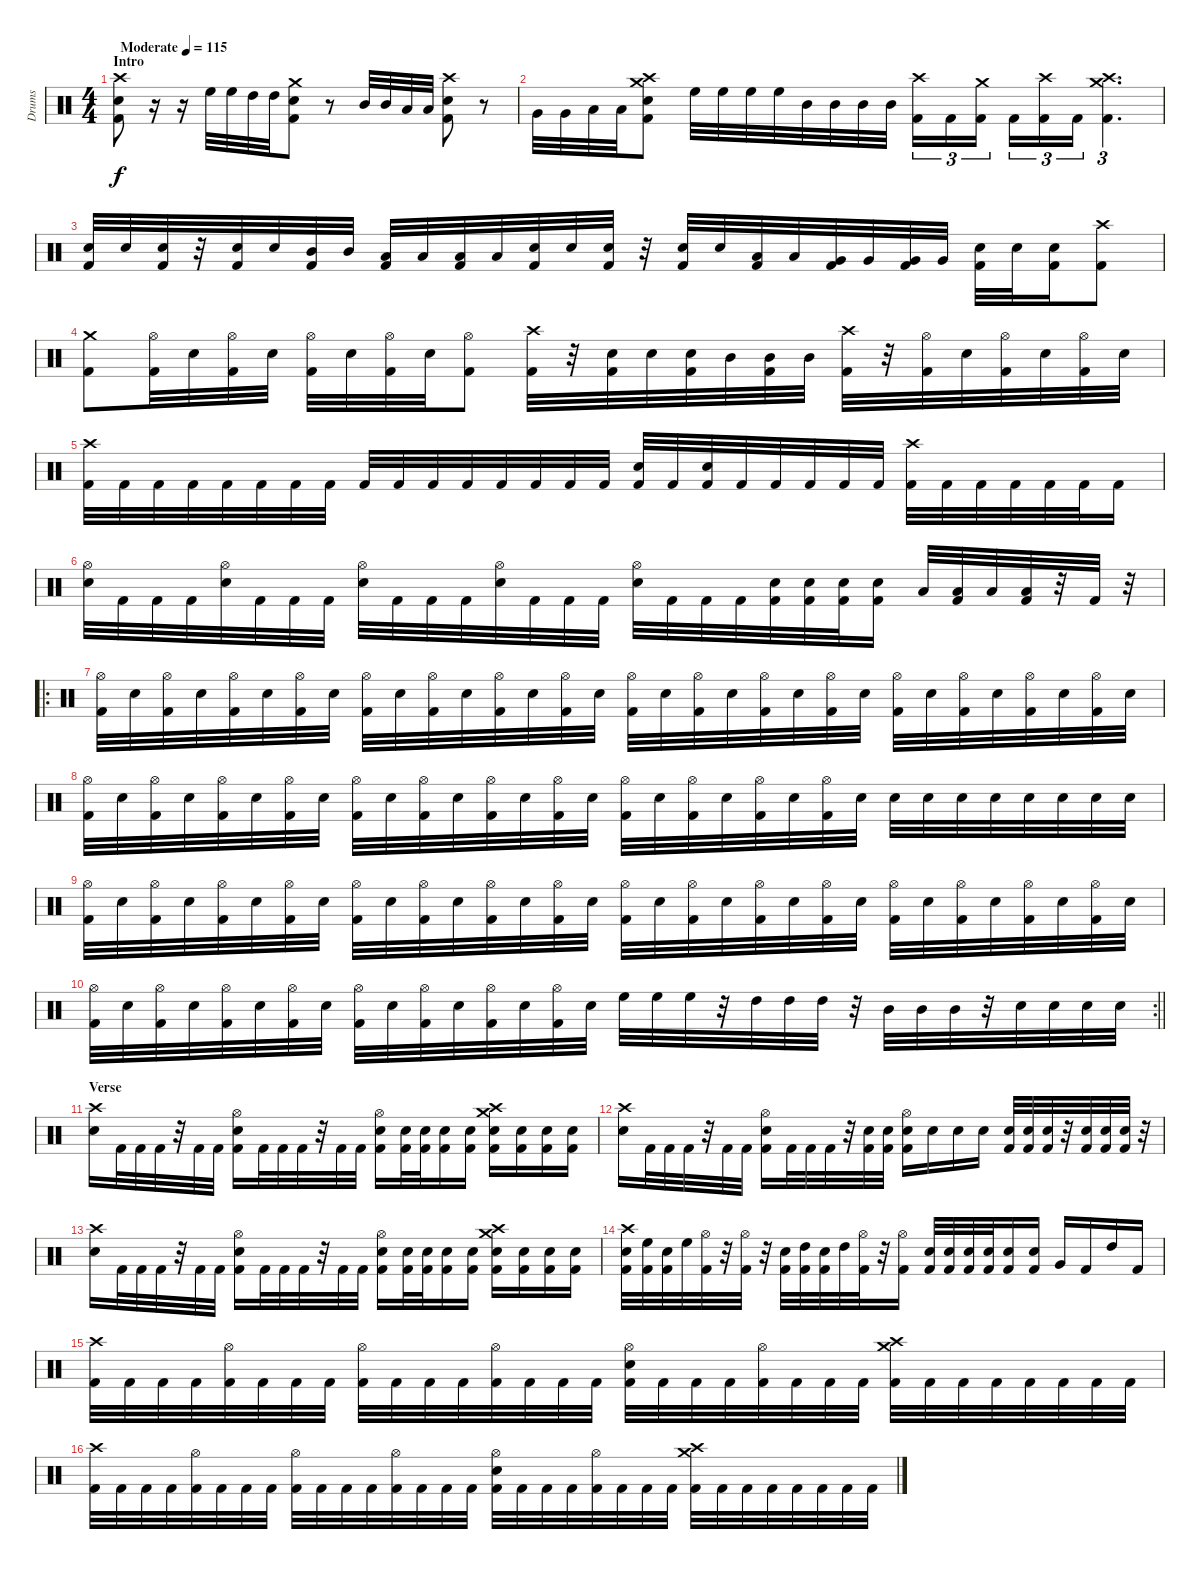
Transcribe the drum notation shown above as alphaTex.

\track ("Drums" "Drums") {instrument percussion}
\staff {score}
\articulation defaults
\ts (4 4)
\section ("" "Intro")
\tempo (115 "Moderate")
\clef neutral
\ks c
("Crash high (hit)" "Electric Snare (hit)" "Kick (hit) 2").8{dy f} r.16 r.16 "High Floor Tom (hit)".32 "High Floor Tom (hit)".32 "High Tom (hit)".32 "High Tom (hit)".32 ("Crash medium (hit)" "Electric Snare (hit)" "Kick (hit) 2").8 r.8 "Mid Tom (hit)".32 "Mid Tom (hit)".32 "Low Tom (hit)".32 "Low Tom (hit)".32 ("Crash high (hit)" "Electric Snare (hit)" "Kick (hit) 2").8 r.8 |
"Very Low Tom (hit)".32 "Very Low Tom (hit)".32 "Low Floor Tom (hit)".32 "Low Floor Tom (hit)".32 ("Crash high (hit)" "Crash medium (hit)" "Electric Snare (hit)" "Kick (hit) 2").8 "High Floor Tom (hit)".32 "High Floor Tom (hit)".32 "High Floor Tom (hit)".32 "High Floor Tom (hit)".32 "Mid Tom (hit)".32 "Mid Tom (hit)".32 "Mid Tom (hit)".32 "Mid Tom (hit)".32 ("Crash high (hit)" "Kick (hit) 2").16{tu (3 2)} "Kick (hit) 2".16{tu (3 2)} ("Crash medium (hit)" "Kick (hit) 2").16{tu (3 2) beam splitsecondary} "Kick (hit) 2".16{tu (3 2)} ("Crash high (hit)" "Kick (hit) 2").16{tu (3 2)} "Kick (hit) 2".16{tu (3 2)} ("Crash medium (hit)" "Crash high (hit)" "Kick (hit) 2").4{d tu (3 2)} |
("Electric Snare (hit)" "Kick (hit) 2").32 "Electric Snare (hit)".32 ("Electric Snare (hit)" "Kick (hit) 2").32 r.32 ("Electric Snare (hit)" "Kick (hit) 2").32 "Electric Snare (hit)".32 ("Mid Tom (hit)" "Kick (hit) 2").32 "Mid Tom (hit)".32 ("Low Tom (hit)" "Kick (hit) 2").32 "Low Tom (hit)".32 ("Low Tom (hit)" "Kick (hit) 2").32 "Low Tom (hit)".32 ("Electric Snare (hit)" "Kick (hit) 2").32 "Electric Snare (hit)".32 ("Electric Snare (hit)" "Kick (hit) 2").32 r.32 ("Electric Snare (hit)" "Kick (hit) 2").32 "Electric Snare (hit)".32 ("Low Tom (hit)" "Kick (hit) 2").32 "Low Tom (hit)".32 ("Very Low Tom (hit)" "Kick (hit) 2").32 "Very Low Tom (hit)".32 ("Very Low Tom (hit)" "Kick (hit) 2").32 "Very Low Tom (hit)".32 ("Electric Snare (hit)" "Kick (hit) 2").32 "Electric Snare (hit)".32 ("Electric Snare (hit)" "Kick (hit) 2").16 ("Crash high (hit)" "Kick (hit) 2").8 |
("Crash medium (hit)" "Kick (hit) 2").8 ("Hi-Hat (open)" "Kick (hit) 2").32 "Electric Snare (hit)".32 ("Hi-Hat (open)" "Kick (hit) 2").32 "Electric Snare (hit)".32 ("Hi-Hat (open)" "Kick (hit) 2").32 "Electric Snare (hit)".32 ("Hi-Hat (open)" "Kick (hit) 2").32 "Electric Snare (hit)".32 ("Hi-Hat (open)" "Kick (hit) 2").8 ("Crash high (hit)" "Kick (hit) 2").32 r.32 ("Electric Snare (hit)" "Kick (hit) 2").32 "Electric Snare (hit)".32 ("Electric Snare (hit)" "Kick (hit) 2").32 "Mid Tom (hit)".32 ("Mid Tom (hit)" "Kick (hit) 2").32 "Mid Tom (hit)".32 ("Crash high (hit)" "Kick (hit) 2").32 r.32 ("Hi-Hat (open)" "Kick (hit) 2").32 "Electric Snare (hit)".32 ("Hi-Hat (open)" "Kick (hit) 2").32 "Electric Snare (hit)".32 ("Hi-Hat (open)" "Kick (hit) 2").32 "Electric Snare (hit)".32 |
("Crash high (hit)" "Kick (hit) 2").32 "Kick (hit) 2".32 "Kick (hit) 2".32 "Kick (hit) 2".32 "Kick (hit) 2".32 "Kick (hit) 2".32 "Kick (hit) 2".32 "Kick (hit) 2".32 "Kick (hit) 2".32 "Kick (hit) 2".32 "Kick (hit) 2".32 "Kick (hit) 2".32 "Kick (hit) 2".32 "Kick (hit) 2".32 "Kick (hit) 2".32 "Kick (hit) 2".32 ("Electric Snare (hit)" "Kick (hit) 2").32 "Kick (hit) 2".32 ("Electric Snare (hit)" "Kick (hit) 2").32 "Kick (hit) 2".32 "Kick (hit) 2".32 "Kick (hit) 2".32 "Kick (hit) 2".32 "Kick (hit) 2".32 ("Crash high (hit)" "Kick (hit) 2").32 "Kick (hit) 2".32 "Kick (hit) 2".32 "Kick (hit) 2".32 "Kick (hit) 2".32 "Kick (hit) 2".32 "Kick (hit) 2".16 |
("Hi-Hat (open)" "Electric Snare (hit)").32 "Kick (hit) 2".32 "Kick (hit) 2".32 "Kick (hit) 2".32 ("Hi-Hat (open)" "Electric Snare (hit)").32 "Kick (hit) 2".32 "Kick (hit) 2".32 "Kick (hit) 2".32 ("Hi-Hat (open)" "Electric Snare (hit)").32 "Kick (hit) 2".32 "Kick (hit) 2".32 "Kick (hit) 2".32 ("Hi-Hat (open)" "Electric Snare (hit)").32 "Kick (hit) 2".32 "Kick (hit) 2".32 "Kick (hit) 2".32 ("Hi-Hat (open)" "Electric Snare (hit)").32 "Kick (hit) 2".32 "Kick (hit) 2".32 "Kick (hit) 2".32 ("Electric Snare (hit)" "Kick (hit) 2").32 ("Electric Snare (hit)" "Kick (hit) 2").32 ("Electric Snare (hit)" "Kick (hit) 2").32 ("Electric Snare (hit)" "Kick (hit) 2").16 "Low Tom (hit)".32 ("Low Tom (hit)" "Kick (hit) 2").32 "Low Tom (hit)".32 ("Low Tom (hit)" "Kick (hit) 2").32 r.32 "Kick (hit) 2".32 r.32 |
\ro
("Hi-Hat (open)" "Kick (hit) 2").32 "Electric Snare (hit)".32 ("Hi-Hat (open)" "Kick (hit) 2").32 "Electric Snare (hit)".32 ("Hi-Hat (open)" "Kick (hit) 2").32 "Electric Snare (hit)".32 ("Hi-Hat (open)" "Kick (hit) 2").32 "Electric Snare (hit)".32 ("Hi-Hat (open)" "Kick (hit) 2").32 "Electric Snare (hit)".32 ("Hi-Hat (open)" "Kick (hit) 2").32 "Electric Snare (hit)".32 ("Hi-Hat (open)" "Kick (hit) 2").32 "Electric Snare (hit)".32 ("Hi-Hat (open)" "Kick (hit) 2").32 "Electric Snare (hit)".32 ("Hi-Hat (open)" "Kick (hit) 2").32 "Electric Snare (hit)".32 ("Hi-Hat (open)" "Kick (hit) 2").32 "Electric Snare (hit)".32 ("Hi-Hat (open)" "Kick (hit) 2").32 "Electric Snare (hit)".32 ("Hi-Hat (open)" "Kick (hit) 2").32 "Electric Snare (hit)".32 ("Hi-Hat (open)" "Kick (hit) 2").32 "Electric Snare (hit)".32 ("Hi-Hat (open)" "Kick (hit) 2").32 "Electric Snare (hit)".32 ("Hi-Hat (open)" "Kick (hit) 2").32 "Electric Snare (hit)".32 ("Hi-Hat (open)" "Kick (hit) 2").32 "Electric Snare (hit)".32 |
("Hi-Hat (open)" "Kick (hit) 2").32 "Electric Snare (hit)".32 ("Hi-Hat (open)" "Kick (hit) 2").32 "Electric Snare (hit)".32 ("Hi-Hat (open)" "Kick (hit) 2").32 "Electric Snare (hit)".32 ("Hi-Hat (open)" "Kick (hit) 2").32 "Electric Snare (hit)".32 ("Hi-Hat (open)" "Kick (hit) 2").32 "Electric Snare (hit)".32 ("Hi-Hat (open)" "Kick (hit) 2").32 "Electric Snare (hit)".32 ("Hi-Hat (open)" "Kick (hit) 2").32 "Electric Snare (hit)".32 ("Hi-Hat (open)" "Kick (hit) 2").32 "Electric Snare (hit)".32 ("Hi-Hat (open)" "Kick (hit) 2").32 "Electric Snare (hit)".32 ("Hi-Hat (open)" "Kick (hit) 2").32 "Electric Snare (hit)".32 ("Hi-Hat (open)" "Kick (hit) 2").32 "Electric Snare (hit)".32 ("Hi-Hat (open)" "Kick (hit) 2").32 "Electric Snare (hit)".32 "Electric Snare (hit)".32 "Electric Snare (hit)".32 "Electric Snare (hit)".32 "Electric Snare (hit)".32 "Electric Snare (hit)".32 "Electric Snare (hit)".32 "Electric Snare (hit)".32 "Electric Snare (hit)".32 |
("Hi-Hat (open)" "Kick (hit) 2").32 "Electric Snare (hit)".32 ("Hi-Hat (open)" "Kick (hit) 2").32 "Electric Snare (hit)".32 ("Hi-Hat (open)" "Kick (hit) 2").32 "Electric Snare (hit)".32 ("Hi-Hat (open)" "Kick (hit) 2").32 "Electric Snare (hit)".32 ("Hi-Hat (open)" "Kick (hit) 2").32 "Electric Snare (hit)".32 ("Hi-Hat (open)" "Kick (hit) 2").32 "Electric Snare (hit)".32 ("Hi-Hat (open)" "Kick (hit) 2").32 "Electric Snare (hit)".32 ("Hi-Hat (open)" "Kick (hit) 2").32 "Electric Snare (hit)".32 ("Hi-Hat (open)" "Kick (hit) 2").32 "Electric Snare (hit)".32 ("Hi-Hat (open)" "Kick (hit) 2").32 "Electric Snare (hit)".32 ("Hi-Hat (open)" "Kick (hit) 2").32 "Electric Snare (hit)".32 ("Hi-Hat (open)" "Kick (hit) 2").32 "Electric Snare (hit)".32 ("Hi-Hat (open)" "Kick (hit) 2").32 "Electric Snare (hit)".32 ("Hi-Hat (open)" "Kick (hit) 2").32 "Electric Snare (hit)".32 ("Hi-Hat (open)" "Kick (hit) 2").32 "Electric Snare (hit)".32 ("Hi-Hat (open)" "Kick (hit) 2").32 "Electric Snare (hit)".32 |
\rc 2
\barLineRight lightlight
("Hi-Hat (open)" "Kick (hit) 2").32 "Electric Snare (hit)".32 ("Hi-Hat (open)" "Kick (hit) 2").32 "Electric Snare (hit)".32 ("Hi-Hat (open)" "Kick (hit) 2").32 "Electric Snare (hit)".32 ("Hi-Hat (open)" "Kick (hit) 2").32 "Electric Snare (hit)".32 ("Hi-Hat (open)" "Kick (hit) 2").32 "Electric Snare (hit)".32 ("Hi-Hat (open)" "Kick (hit) 2").32 "Electric Snare (hit)".32 ("Hi-Hat (open)" "Kick (hit) 2").32 "Electric Snare (hit)".32 ("Hi-Hat (open)" "Kick (hit) 2").32 "Electric Snare (hit)".32 "High Floor Tom (hit)".32 "High Floor Tom (hit)".32 "High Floor Tom (hit)".32 r.32 "High Tom (hit)".32 "High Tom (hit)".32 "High Tom (hit)".32 r.32 "Mid Tom (hit)".32 "Mid Tom (hit)".32 "Mid Tom (hit)".32 r.32 "Electric Snare (hit)".32 "Electric Snare (hit)".32 "Electric Snare (hit)".32 "Electric Snare (hit)".32 |
\section ("" "Verse")
("Crash high (hit)" "Electric Snare (hit)").16 "Kick (hit) 2".32 "Kick (hit) 2".32 "Kick (hit) 2".32 r.32 "Kick (hit) 2".32 "Kick (hit) 2".32 ("Hi-Hat (open)" "Electric Snare (hit)" "Kick (hit) 2").16 "Kick (hit) 2".32 "Kick (hit) 2".32 "Kick (hit) 2".32 r.32 "Kick (hit) 2".32 "Kick (hit) 2".32 ("Hi-Hat (open)" "Electric Snare (hit)" "Kick (hit) 2").16 ("Electric Snare (hit)" "Kick (hit) 2").32 ("Electric Snare (hit)" "Kick (hit) 2").32 ("Electric Snare (hit)" "Kick (hit) 2").16 ("Electric Snare (hit)" "Kick (hit) 2").16 ("Crash medium (hit)" "Crash high (hit)" "Electric Snare (hit)" "Kick (hit) 2").16 ("Electric Snare (hit)" "Kick (hit) 2").16 ("Electric Snare (hit)" "Kick (hit) 2").16 ("Electric Snare (hit)" "Kick (hit) 2").16 |
("Crash high (hit)" "Electric Snare (hit)").16 "Kick (hit) 2".32 "Kick (hit) 2".32 "Kick (hit) 2".32 r.32 "Kick (hit) 2".32 "Kick (hit) 2".32 ("Hi-Hat (open)" "Electric Snare (hit)" "Kick (hit) 2").16 "Kick (hit) 2".32 "Kick (hit) 2".32 "Kick (hit) 2".32 r.32 ("Electric Snare (hit)" "Kick (hit) 2").32 ("Electric Snare (hit)" "Kick (hit) 2").32 ("Hi-Hat (open)" "Electric Snare (hit)" "Kick (hit) 2").16 "Electric Snare (hit)".16 "Electric Snare (hit)".16 "Electric Snare (hit)".16 ("Electric Snare (hit)" "Kick (hit) 2").32 ("Electric Snare (hit)" "Kick (hit) 2").32 ("Electric Snare (hit)" "Kick (hit) 2").32 r.32 ("Electric Snare (hit)" "Kick (hit) 2").32 ("Electric Snare (hit)" "Kick (hit) 2").32 ("Electric Snare (hit)" "Kick (hit) 2").32 r.32 |
("Crash high (hit)" "Electric Snare (hit)").16 "Kick (hit) 2".32 "Kick (hit) 2".32 "Kick (hit) 2".32 r.32 "Kick (hit) 2".32 "Kick (hit) 2".32 ("Hi-Hat (open)" "Electric Snare (hit)" "Kick (hit) 2").16 "Kick (hit) 2".32 "Kick (hit) 2".32 "Kick (hit) 2".32 r.32 "Kick (hit) 2".32 "Kick (hit) 2".32 ("Hi-Hat (open)" "Electric Snare (hit)" "Kick (hit) 2").16 ("Electric Snare (hit)" "Kick (hit) 2").32 ("Electric Snare (hit)" "Kick (hit) 2").32 ("Electric Snare (hit)" "Kick (hit) 2").16 ("Electric Snare (hit)" "Kick (hit) 2").16 ("Crash medium (hit)" "Crash high (hit)" "Electric Snare (hit)" "Kick (hit) 2").16 ("Electric Snare (hit)" "Kick (hit) 2").16 ("Electric Snare (hit)" "Kick (hit) 2").16 ("Electric Snare (hit)" "Kick (hit) 2").16 |
("Crash high (hit)" "Electric Snare (hit)" "Kick (hit) 2").32 ("High Floor Tom (hit)" "Kick (hit) 2").32 ("Electric Snare (hit)" "Kick (hit) 2").32 "High Floor Tom (hit)".32 ("Hi-Hat (open)" "Kick (hit) 2").32 r.32 ("Hi-Hat (open)" "Kick (hit) 2").32 r.32 ("Electric Snare (hit)" "Kick (hit) 2").32 ("High Tom (hit)" "Kick (hit) 2").32 ("Electric Snare (hit)" "Kick (hit) 2").32 "High Tom (hit)".32 ("Hi-Hat (open)" "Kick (hit) 2").32 r.32 ("Hi-Hat (open)" "Kick (hit) 2").16 ("Electric Snare (hit)" "Kick (hit) 2").32 ("Electric Snare (hit)" "Kick (hit) 2").32 ("Electric Snare (hit)" "Kick (hit) 2").32 ("Electric Snare (hit)" "Kick (hit) 2").32 ("Electric Snare (hit)" "Kick (hit) 2").16 ("Electric Snare (hit)" "Kick (hit) 2").16 "Very Low Tom (hit)".16 "Kick (hit) 2".16 "High Tom (hit)".16 "Kick (hit) 2".16 |
("Crash high (hit)" "Kick (hit) 2").32 "Kick (hit) 2".32 "Kick (hit) 2".32 "Kick (hit) 2".32 ("Hi-Hat (open)" "Kick (hit) 2").32 "Kick (hit) 2".32 "Kick (hit) 2".32 "Kick (hit) 2".32 ("Hi-Hat (open)" "Kick (hit) 2").32 "Kick (hit) 2".32 "Kick (hit) 2".32 "Kick (hit) 2".32 ("Hi-Hat (open)" "Kick (hit) 2").32 "Kick (hit) 2".32 "Kick (hit) 2".32 "Kick (hit) 2".32 ("Hi-Hat (open)" "Electric Snare (hit)" "Kick (hit) 2").32 "Kick (hit) 2".32 "Kick (hit) 2".32 "Kick (hit) 2".32 ("Hi-Hat (open)" "Kick (hit) 2").32 "Kick (hit) 2".32 "Kick (hit) 2".32 "Kick (hit) 2".32 ("Crash medium (hit)" "Crash high (hit)" "Kick (hit) 2").32 "Kick (hit) 2".32 "Kick (hit) 2".32 "Kick (hit) 2".32 "Kick (hit) 2".32 "Kick (hit) 2".32 "Kick (hit) 2".32 "Kick (hit) 2".32 |
("Crash high (hit)" "Kick (hit) 2").32 "Kick (hit) 2".32 "Kick (hit) 2".32 "Kick (hit) 2".32 ("Hi-Hat (open)" "Kick (hit) 2").32 "Kick (hit) 2".32 "Kick (hit) 2".32 "Kick (hit) 2".32 ("Hi-Hat (open)" "Kick (hit) 2").32 "Kick (hit) 2".32 "Kick (hit) 2".32 "Kick (hit) 2".32 ("Hi-Hat (open)" "Kick (hit) 2").32 "Kick (hit) 2".32 "Kick (hit) 2".32 "Kick (hit) 2".32 ("Hi-Hat (open)" "Electric Snare (hit)" "Kick (hit) 2").32 "Kick (hit) 2".32 "Kick (hit) 2".32 "Kick (hit) 2".32 ("Hi-Hat (open)" "Kick (hit) 2").32 "Kick (hit) 2".32 "Kick (hit) 2".32 "Kick (hit) 2".32 ("Crash medium (hit)" "Crash high (hit)" "Kick (hit) 2").32 "Kick (hit) 2".32 "Kick (hit) 2".32 "Kick (hit) 2".32 "Kick (hit) 2".32 "Kick (hit) 2".32 "Kick (hit) 2".32 "Kick (hit) 2".32
